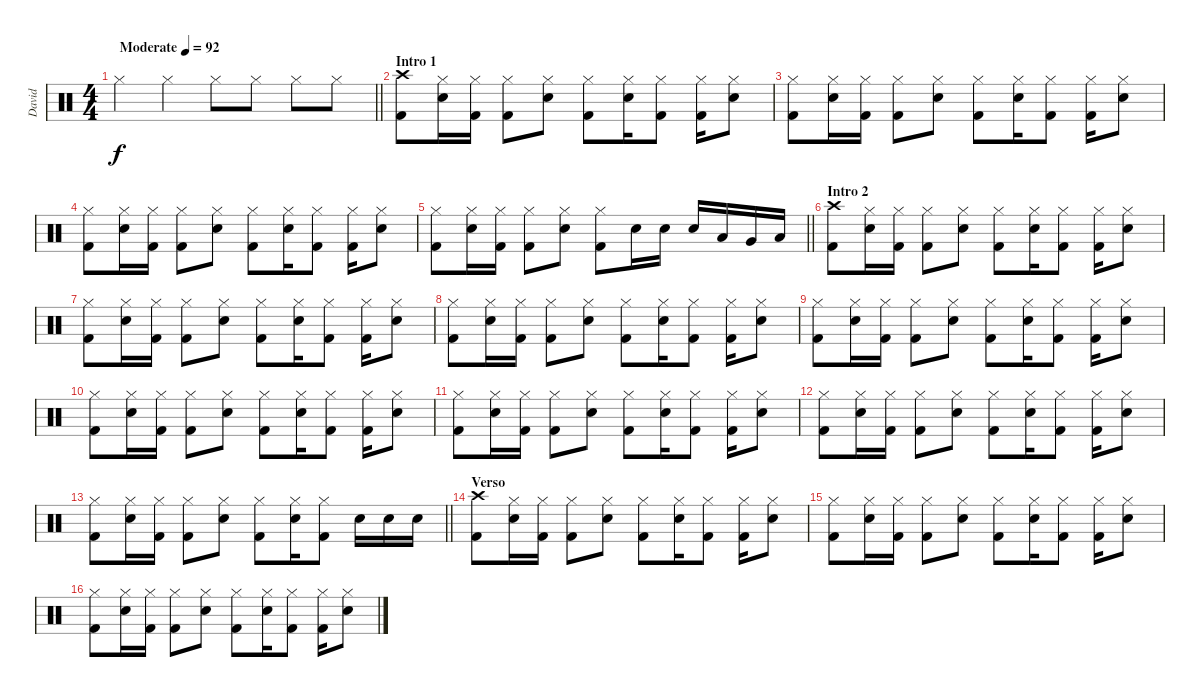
\track ("David" "David") {instrument percussion}
\staff {score}
\articulation defaults
\ts (4 4)
\tempo (92 "Moderate")
\clef neutral
\barLineRight lightlight
\ks c "Hi-Hat (closed)".4{dy f} "Hi-Hat (closed)".4 "Hi-Hat (closed)".8 "Hi-Hat (closed)".8 "Hi-Hat (closed)".8 "Hi-Hat (closed)".8
|
\section ("" "Intro 1")
("Crash high (hit)" "Kick (hit) 2").8 ("Hi-Hat (closed)" "Snare (hit) 2").16 ("Hi-Hat (closed)" "Kick (hit) 2").16 ("Hi-Hat (closed)" "Kick (hit) 2").8 ("Hi-Hat (closed)" "Snare (hit) 2").8 ("Hi-Hat (closed)" "Kick (hit) 2").8 ("Hi-Hat (closed)" "Snare (hit) 2").16 ("Hi-Hat (closed)" "Kick (hit) 2").8 ("Hi-Hat (closed)" "Kick (hit) 2").16 ("Hi-Hat (closed)" "Snare (hit) 2").8 |
("Hi-Hat (closed)" "Kick (hit) 2").8 ("Hi-Hat (closed)" "Snare (hit) 2").16 ("Hi-Hat (closed)" "Kick (hit) 2").16 ("Hi-Hat (closed)" "Kick (hit) 2").8 ("Hi-Hat (closed)" "Snare (hit) 2").8 ("Hi-Hat (closed)" "Kick (hit) 2").8 ("Hi-Hat (closed)" "Snare (hit) 2").16 ("Hi-Hat (closed)" "Kick (hit) 2").8 ("Hi-Hat (closed)" "Kick (hit) 2").16 ("Hi-Hat (closed)" "Snare (hit) 2").8 |
("Hi-Hat (closed)" "Kick (hit) 2").8 ("Hi-Hat (closed)" "Snare (hit) 2").16 ("Hi-Hat (closed)" "Kick (hit) 2").16 ("Hi-Hat (closed)" "Kick (hit) 2").8 ("Hi-Hat (closed)" "Snare (hit) 2").8 ("Hi-Hat (closed)" "Kick (hit) 2").8 ("Hi-Hat (closed)" "Snare (hit) 2").16 ("Hi-Hat (closed)" "Kick (hit) 2").8 ("Hi-Hat (closed)" "Kick (hit) 2").16 ("Hi-Hat (closed)" "Snare (hit) 2").8 |
\barLineRight lightlight
("Hi-Hat (closed)" "Kick (hit) 2").8 ("Hi-Hat (closed)" "Snare (hit) 2").16 ("Hi-Hat (closed)" "Kick (hit) 2").16 ("Hi-Hat (closed)" "Kick (hit) 2").8 ("Hi-Hat (closed)" "Snare (hit) 2").8 ("Hi-Hat (closed)" "Kick (hit) 2").8 "Snare (hit) 2".16 "Snare (hit) 2".16 "Snare (hit) 2".16 "Low Tom (hit)".16 "Very Low Tom (hit)".16 "Low Floor Tom (hit)".16 |
\section ("" "Intro 2")
("Crash high (hit)" "Kick (hit) 2").8 ("Hi-Hat (closed)" "Snare (hit) 2").16 ("Hi-Hat (closed)" "Kick (hit) 2").16 ("Hi-Hat (closed)" "Kick (hit) 2").8 ("Hi-Hat (closed)" "Snare (hit) 2").8 ("Hi-Hat (closed)" "Kick (hit) 2").8 ("Hi-Hat (closed)" "Snare (hit) 2").16 ("Hi-Hat (closed)" "Kick (hit) 2").8 ("Hi-Hat (closed)" "Kick (hit) 2").16 ("Hi-Hat (closed)" "Snare (hit) 2").8 |
("Hi-Hat (closed)" "Kick (hit) 2").8 ("Hi-Hat (closed)" "Snare (hit) 2").16 ("Hi-Hat (closed)" "Kick (hit) 2").16 ("Hi-Hat (closed)" "Kick (hit) 2").8 ("Hi-Hat (closed)" "Snare (hit) 2").8 ("Hi-Hat (closed)" "Kick (hit) 2").8 ("Hi-Hat (closed)" "Snare (hit) 2").16 ("Hi-Hat (closed)" "Kick (hit) 2").8 ("Hi-Hat (closed)" "Kick (hit) 2").16 ("Hi-Hat (closed)" "Snare (hit) 2").8 |
("Hi-Hat (closed)" "Kick (hit) 2").8 ("Hi-Hat (closed)" "Snare (hit) 2").16 ("Hi-Hat (closed)" "Kick (hit) 2").16 ("Hi-Hat (closed)" "Kick (hit) 2").8 ("Hi-Hat (closed)" "Snare (hit) 2").8 ("Hi-Hat (closed)" "Kick (hit) 2").8 ("Hi-Hat (closed)" "Snare (hit) 2").16 ("Hi-Hat (closed)" "Kick (hit) 2").8 ("Hi-Hat (closed)" "Kick (hit) 2").16 ("Hi-Hat (closed)" "Snare (hit) 2").8 |
("Hi-Hat (closed)" "Kick (hit) 2").8 ("Hi-Hat (closed)" "Snare (hit) 2").16 ("Hi-Hat (closed)" "Kick (hit) 2").16 ("Hi-Hat (closed)" "Kick (hit) 2").8 ("Hi-Hat (closed)" "Snare (hit) 2").8 ("Hi-Hat (closed)" "Kick (hit) 2").8 ("Hi-Hat (closed)" "Snare (hit) 2").16 ("Hi-Hat (closed)" "Kick (hit) 2").8 ("Hi-Hat (closed)" "Kick (hit) 2").16 ("Hi-Hat (closed)" "Snare (hit) 2").8 |
("Hi-Hat (closed)" "Kick (hit) 2").8 ("Hi-Hat (closed)" "Snare (hit) 2").16 ("Hi-Hat (closed)" "Kick (hit) 2").16 ("Hi-Hat (closed)" "Kick (hit) 2").8 ("Hi-Hat (closed)" "Snare (hit) 2").8 ("Hi-Hat (closed)" "Kick (hit) 2").8 ("Hi-Hat (closed)" "Snare (hit) 2").16 ("Hi-Hat (closed)" "Kick (hit) 2").8 ("Hi-Hat (closed)" "Kick (hit) 2").16 ("Hi-Hat (closed)" "Snare (hit) 2").8 |
("Hi-Hat (closed)" "Kick (hit) 2").8 ("Hi-Hat (closed)" "Snare (hit) 2").16 ("Hi-Hat (closed)" "Kick (hit) 2").16 ("Hi-Hat (closed)" "Kick (hit) 2").8 ("Hi-Hat (closed)" "Snare (hit) 2").8 ("Hi-Hat (closed)" "Kick (hit) 2").8 ("Hi-Hat (closed)" "Snare (hit) 2").16 ("Hi-Hat (closed)" "Kick (hit) 2").8 ("Hi-Hat (closed)" "Kick (hit) 2").16 ("Hi-Hat (closed)" "Snare (hit) 2").8 |
("Hi-Hat (closed)" "Kick (hit) 2").8 ("Hi-Hat (closed)" "Snare (hit) 2").16 ("Hi-Hat (closed)" "Kick (hit) 2").16 ("Hi-Hat (closed)" "Kick (hit) 2").8 ("Hi-Hat (closed)" "Snare (hit) 2").8 ("Hi-Hat (closed)" "Kick (hit) 2").8 ("Hi-Hat (closed)" "Snare (hit) 2").16 ("Hi-Hat (closed)" "Kick (hit) 2").8 ("Hi-Hat (closed)" "Kick (hit) 2").16 ("Hi-Hat (closed)" "Snare (hit) 2").8 |
\barLineRight lightlight
("Hi-Hat (closed)" "Kick (hit) 2").8 ("Hi-Hat (closed)" "Snare (hit) 2").16 ("Hi-Hat (closed)" "Kick (hit) 2").16 ("Hi-Hat (closed)" "Kick (hit) 2").8 ("Hi-Hat (closed)" "Snare (hit) 2").8 ("Hi-Hat (closed)" "Kick (hit) 2").8 ("Hi-Hat (closed)" "Snare (hit) 2").16 ("Hi-Hat (closed)" "Kick (hit) 2").8 "Snare (hit) 2".16 "Snare (hit) 2".16 "Snare (hit) 2".16 |
\section ("" "Verso")
("Crash high (hit)" "Kick (hit) 2").8 ("Hi-Hat (closed)" "Snare (hit) 2").16 ("Hi-Hat (closed)" "Kick (hit) 2").16 ("Hi-Hat (closed)" "Kick (hit) 2").8 ("Hi-Hat (closed)" "Snare (hit) 2").8 ("Hi-Hat (closed)" "Kick (hit) 2").8 ("Hi-Hat (closed)" "Snare (hit) 2").16 ("Hi-Hat (closed)" "Kick (hit) 2").8 ("Hi-Hat (closed)" "Kick (hit) 2").16 ("Hi-Hat (closed)" "Snare (hit) 2").8 |
("Hi-Hat (closed)" "Kick (hit) 2").8 ("Hi-Hat (closed)" "Snare (hit) 2").16 ("Hi-Hat (closed)" "Kick (hit) 2").16 ("Hi-Hat (closed)" "Kick (hit) 2").8 ("Hi-Hat (closed)" "Snare (hit) 2").8 ("Hi-Hat (closed)" "Kick (hit) 2").8 ("Hi-Hat (closed)" "Snare (hit) 2").16 ("Hi-Hat (closed)" "Kick (hit) 2").8 ("Hi-Hat (closed)" "Kick (hit) 2").16 ("Hi-Hat (closed)" "Snare (hit) 2").8 |
("Hi-Hat (closed)" "Kick (hit) 2").8 ("Hi-Hat (closed)" "Snare (hit) 2").16 ("Hi-Hat (closed)" "Kick (hit) 2").16 ("Hi-Hat (closed)" "Kick (hit) 2").8 ("Hi-Hat (closed)" "Snare (hit) 2").8 ("Hi-Hat (closed)" "Kick (hit) 2").8 ("Hi-Hat (closed)" "Snare (hit) 2").16 ("Hi-Hat (closed)" "Kick (hit) 2").8 ("Hi-Hat (closed)" "Kick (hit) 2").16 ("Hi-Hat (closed)" "Snare (hit) 2").8
